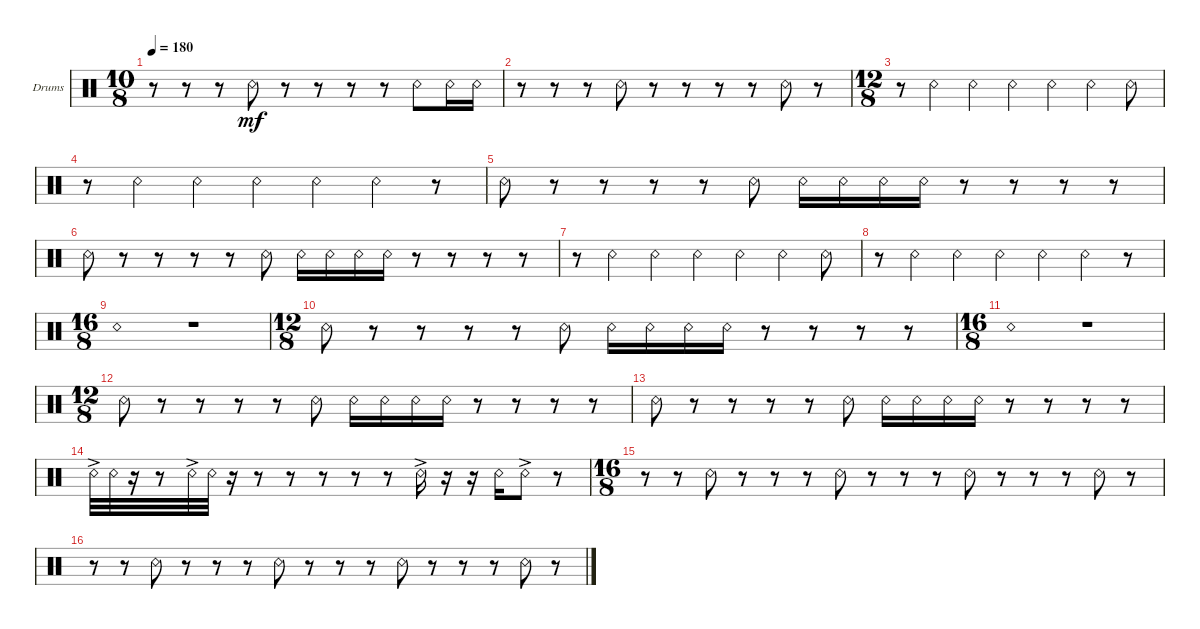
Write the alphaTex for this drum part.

\defaultSystemsLayout 4
\bracketExtendMode groupsimilarinstruments
\firstSystemTrackNameOrientation horizontal
\otherSystemsTrackNameOrientation horizontal
\track ("Snare 2" "Drums") {instrument percussion}
\staff {score}
\articulation defaults
\ts (10 8)
\tempo 180
\clef neutral
\ks c
r.8{dy mf} r.8 r.8 "Snare (rim shot)".8 r.8 r.8 r.8 r.8 "Snare (rim shot)".8 "Snare (rim shot)".16 "Snare (rim shot)".16 |
r.8 r.8 r.8 "Snare (rim shot)".8 r.8 r.8 r.8 r.8 "Snare (rim shot)".8 r.8 |
\ts (12 8)
r.8 "Snare (rim shot)".4 "Snare (rim shot)".4 "Snare (rim shot)".4 "Snare (rim shot)".4 "Snare (rim shot)".4 "Snare (rim shot)".8 |
r.8 "Snare (rim shot)".4 "Snare (rim shot)".4 "Snare (rim shot)".4 "Snare (rim shot)".4 "Snare (rim shot)".4 r.8 |
"Snare (rim shot)".8 r.8 r.8 r.8 r.8 "Snare (rim shot)".8 "Snare (rim shot)".16 "Snare (rim shot)".16 "Snare (rim shot)".16 "Snare (rim shot)".16 r.8 r.8 r.8 r.8 |
"Snare (rim shot)".8 r.8 r.8 r.8 r.8 "Snare (rim shot)".8 "Snare (rim shot)".16 "Snare (rim shot)".16 "Snare (rim shot)".16 "Snare (rim shot)".16 r.8 r.8 r.8 r.8 |
r.8 "Snare (rim shot)".4 "Snare (rim shot)".4 "Snare (rim shot)".4 "Snare (rim shot)".4 "Snare (rim shot)".4 "Snare (rim shot)".8 |
r.8 "Snare (rim shot)".4 "Snare (rim shot)".4 "Snare (rim shot)".4 "Snare (rim shot)".4 "Snare (rim shot)".4 r.8 |
\ts (16 8)
"Snare (rim shot)".1 r.1 |
\ts (12 8)
"Snare (rim shot)".8 r.8 r.8 r.8 r.8 "Snare (rim shot)".8 "Snare (rim shot)".16 "Snare (rim shot)".16 "Snare (rim shot)".16 "Snare (rim shot)".16 r.8 r.8 r.8 r.8 |
\ts (16 8)
"Snare (rim shot)".1 r.1 |
\ts (12 8)
"Snare (rim shot)".8 r.8 r.8 r.8 r.8 "Snare (rim shot)".8 "Snare (rim shot)".16 "Snare (rim shot)".16 "Snare (rim shot)".16 "Snare (rim shot)".16 r.8 r.8 r.8 r.8 |
"Snare (rim shot)".8 r.8 r.8 r.8 r.8 "Snare (rim shot)".8 "Snare (rim shot)".16 "Snare (rim shot)".16 "Snare (rim shot)".16 "Snare (rim shot)".16 r.8 r.8 r.8 r.8 |
"Snare (rim shot)"{ac}.32 "Snare (rim shot)".32 r.16 r.8 "Snare (rim shot)"{ac}.32 "Snare (rim shot)".32 r.16 r.8 r.8 r.8 r.8 r.8 "Snare (rim shot)"{ac}.16 r.16 r.16 "Snare (rim shot)".16 "Snare (rim shot)"{ac}.8 r.8 |
\ts (16 8)
r.8 r.8 "Snare (rim shot)".8 r.8 r.8 r.8 "Snare (rim shot)".8 r.8 r.8 r.8 "Snare (rim shot)".8 r.8 r.8 r.8 "Snare (rim shot)".8 r.8 |
r.8 r.8 "Snare (rim shot)".8 r.8 r.8 r.8 "Snare (rim shot)".8 r.8 r.8 r.8 "Snare (rim shot)".8 r.8 r.8 r.8 "Snare (rim shot)".8 r.8
